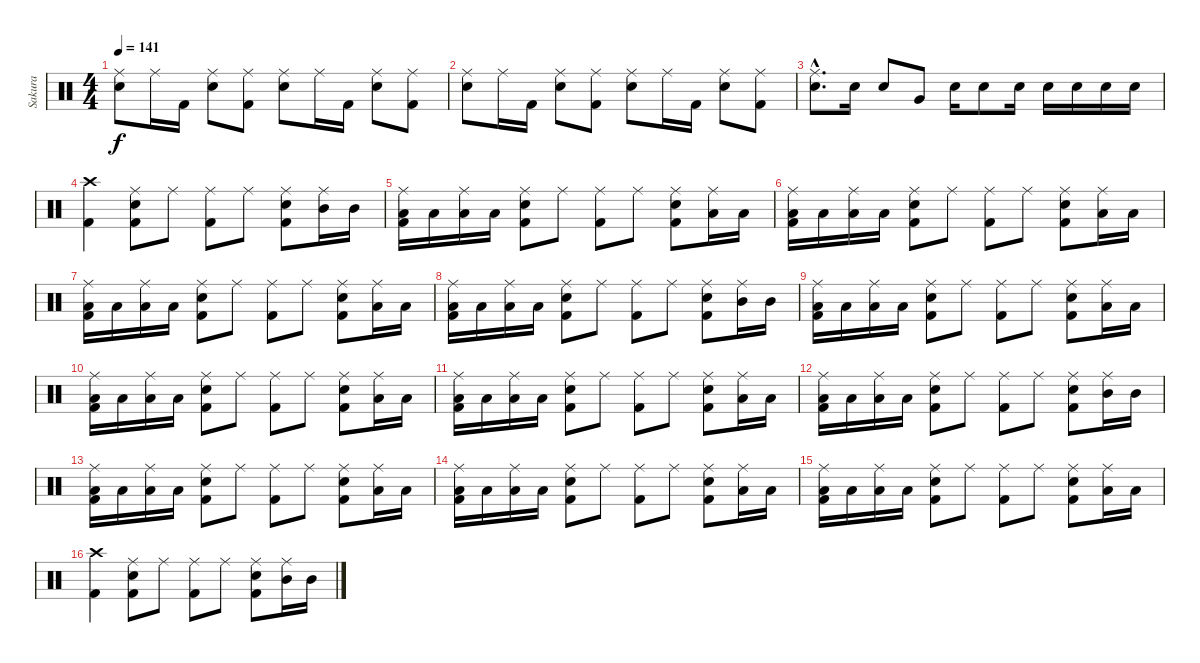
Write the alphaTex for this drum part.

\track ("Sakura" "Sakura") {instrument percussion}
\staff {score}
\articulation defaults
\ts (4 4)
\tempo 141
\clef neutral
\ks c
("Ride (middle)" "Snare (hit) 2").8{dy f} "Ride (middle)".16 "Kick (hit) 2".16 ("Ride (middle)" "Snare (hit) 2").8 ("Ride (middle)" "Kick (hit) 2").8 ("Ride (middle)" "Snare (hit) 2").8 "Ride (middle)".16 "Kick (hit) 2".16 ("Ride (middle)" "Snare (hit) 2").8 ("Ride (middle)" "Kick (hit) 2").8 |
("Ride (middle)" "Snare (hit) 2").8 "Ride (middle)".16 "Kick (hit) 2".16 ("Ride (middle)" "Snare (hit) 2").8 ("Ride (middle)" "Kick (hit) 2").8 ("Ride (middle)" "Snare (hit) 2").8 "Ride (middle)".16 "Kick (hit) 2".16 ("Ride (middle)" "Snare (hit) 2").8 ("Ride (middle)" "Kick (hit) 2").8 |
("Ride (middle)"{hac} "Snare (hit) 2"{hac}).8{d} "Snare (hit) 2".16 "Snare (hit) 2".8 "Very Low Tom (hit)".8 "Snare (hit) 2".16 "Snare (hit) 2".8 "Snare (hit) 2".16 "Snare (hit) 2".16 "Snare (hit) 2".16 "Snare (hit) 2".16 "Snare (hit) 2".16 |
("Crash high (hit)" "Kick (hit) 2").4 ("Ride (middle)" "Snare (hit) 2" "Kick (hit) 2").8 "Ride (middle)".8 ("Ride (middle)" "Kick (hit) 2").8 "Ride (middle)".8 ("Ride (middle)" "Snare (hit) 2" "Kick (hit) 2").8 ("Ride (middle)" "Mid Tom (hit)").16 "Mid Tom (hit)".16 |
("Ride (middle)" "Low Tom (hit)" "Kick (hit) 2").16 "Low Tom (hit)".16 ("Ride (middle)" "Low Floor Tom (hit)").16 "Low Floor Tom (hit)".16 ("Ride (middle)" "Snare (hit) 2" "Kick (hit) 2").8 "Ride (middle)".8 ("Ride (middle)" "Kick (hit) 2").8 "Ride (middle)".8 ("Ride (middle)" "Snare (hit) 2" "Kick (hit) 2").8 ("Ride (middle)" "Low Tom (hit)").16 "Low Tom (hit)".16 |
("Ride (middle)" "Low Tom (hit)" "Kick (hit) 2").16 "Low Tom (hit)".16 ("Ride (middle)" "Low Floor Tom (hit)").16 "Low Floor Tom (hit)".16 ("Ride (middle)" "Snare (hit) 2" "Kick (hit) 2").8 "Ride (middle)".8 ("Ride (middle)" "Kick (hit) 2").8 "Ride (middle)".8 ("Ride (middle)" "Snare (hit) 2" "Kick (hit) 2").8 ("Ride (middle)" "Low Tom (hit)").16 "Low Tom (hit)".16 |
("Ride (middle)" "Low Tom (hit)" "Kick (hit) 2").16 "Low Tom (hit)".16 ("Ride (middle)" "Low Floor Tom (hit)").16 "Low Floor Tom (hit)".16 ("Ride (middle)" "Snare (hit) 2" "Kick (hit) 2").8 "Ride (middle)".8 ("Ride (middle)" "Kick (hit) 2").8 "Ride (middle)".8 ("Ride (middle)" "Snare (hit) 2" "Kick (hit) 2").8 ("Ride (middle)" "Low Tom (hit)").16 "Low Tom (hit)".16 |
("Ride (middle)" "Low Tom (hit)" "Kick (hit) 2").16 "Low Tom (hit)".16 ("Ride (middle)" "Low Floor Tom (hit)").16 "Low Floor Tom (hit)".16 ("Ride (middle)" "Snare (hit) 2" "Kick (hit) 2").8 "Ride (middle)".8 ("Ride (middle)" "Kick (hit) 2").8 "Ride (middle)".8 ("Ride (middle)" "Snare (hit) 2" "Kick (hit) 2").8 ("Ride (middle)" "Mid Tom (hit)").16 "Mid Tom (hit)".16 |
("Ride (middle)" "Low Tom (hit)" "Kick (hit) 2").16 "Low Tom (hit)".16 ("Ride (middle)" "Low Floor Tom (hit)").16 "Low Floor Tom (hit)".16 ("Ride (middle)" "Snare (hit) 2" "Kick (hit) 2").8 "Ride (middle)".8 ("Ride (middle)" "Kick (hit) 2").8 "Ride (middle)".8 ("Ride (middle)" "Snare (hit) 2" "Kick (hit) 2").8 ("Ride (middle)" "Low Tom (hit)").16 "Low Tom (hit)".16 |
("Ride (middle)" "Low Tom (hit)" "Kick (hit) 2").16 "Low Tom (hit)".16 ("Ride (middle)" "Low Floor Tom (hit)").16 "Low Floor Tom (hit)".16 ("Ride (middle)" "Snare (hit) 2" "Kick (hit) 2").8 "Ride (middle)".8 ("Ride (middle)" "Kick (hit) 2").8 "Ride (middle)".8 ("Ride (middle)" "Snare (hit) 2" "Kick (hit) 2").8 ("Ride (middle)" "Low Tom (hit)").16 "Low Tom (hit)".16 |
("Ride (middle)" "Low Tom (hit)" "Kick (hit) 2").16 "Low Tom (hit)".16 ("Ride (middle)" "Low Floor Tom (hit)").16 "Low Floor Tom (hit)".16 ("Ride (middle)" "Snare (hit) 2" "Kick (hit) 2").8 "Ride (middle)".8 ("Ride (middle)" "Kick (hit) 2").8 "Ride (middle)".8 ("Ride (middle)" "Snare (hit) 2" "Kick (hit) 2").8 ("Ride (middle)" "Low Tom (hit)").16 "Low Tom (hit)".16 |
("Ride (middle)" "Low Tom (hit)" "Kick (hit) 2").16 "Low Tom (hit)".16 ("Ride (middle)" "Low Floor Tom (hit)").16 "Low Floor Tom (hit)".16 ("Ride (middle)" "Snare (hit) 2" "Kick (hit) 2").8 "Ride (middle)".8 ("Ride (middle)" "Kick (hit) 2").8 "Ride (middle)".8 ("Ride (middle)" "Snare (hit) 2" "Kick (hit) 2").8 ("Ride (middle)" "Mid Tom (hit)").16 "Mid Tom (hit)".16 |
("Ride (middle)" "Low Tom (hit)" "Kick (hit) 2").16 "Low Tom (hit)".16 ("Ride (middle)" "Low Floor Tom (hit)").16 "Low Floor Tom (hit)".16 ("Ride (middle)" "Snare (hit) 2" "Kick (hit) 2").8 "Ride (middle)".8 ("Ride (middle)" "Kick (hit) 2").8 "Ride (middle)".8 ("Ride (middle)" "Snare (hit) 2" "Kick (hit) 2").8 ("Ride (middle)" "Low Tom (hit)").16 "Low Tom (hit)".16 |
("Ride (middle)" "Low Tom (hit)" "Kick (hit) 2").16 "Low Tom (hit)".16 ("Ride (middle)" "Low Floor Tom (hit)").16 "Low Floor Tom (hit)".16 ("Ride (middle)" "Snare (hit) 2" "Kick (hit) 2").8 "Ride (middle)".8 ("Ride (middle)" "Kick (hit) 2").8 "Ride (middle)".8 ("Ride (middle)" "Snare (hit) 2" "Kick (hit) 2").8 ("Ride (middle)" "Low Tom (hit)").16 "Low Tom (hit)".16 |
("Ride (middle)" "Low Tom (hit)" "Kick (hit) 2").16 "Low Tom (hit)".16 ("Ride (middle)" "Low Floor Tom (hit)").16 "Low Floor Tom (hit)".16 ("Ride (middle)" "Snare (hit) 2" "Kick (hit) 2").8 "Ride (middle)".8 ("Ride (middle)" "Kick (hit) 2").8 "Ride (middle)".8 ("Ride (middle)" "Snare (hit) 2" "Kick (hit) 2").8 ("Ride (middle)" "Low Tom (hit)").16 "Low Tom (hit)".16 |
("Crash high (hit)" "Kick (hit) 2").4 ("Ride (middle)" "Snare (hit) 2" "Kick (hit) 2").8 "Ride (middle)".8 ("Ride (middle)" "Kick (hit) 2").8 "Ride (middle)".8 ("Ride (middle)" "Snare (hit) 2" "Kick (hit) 2").8 ("Ride (middle)" "Mid Tom (hit)").16 "Mid Tom (hit)".16
